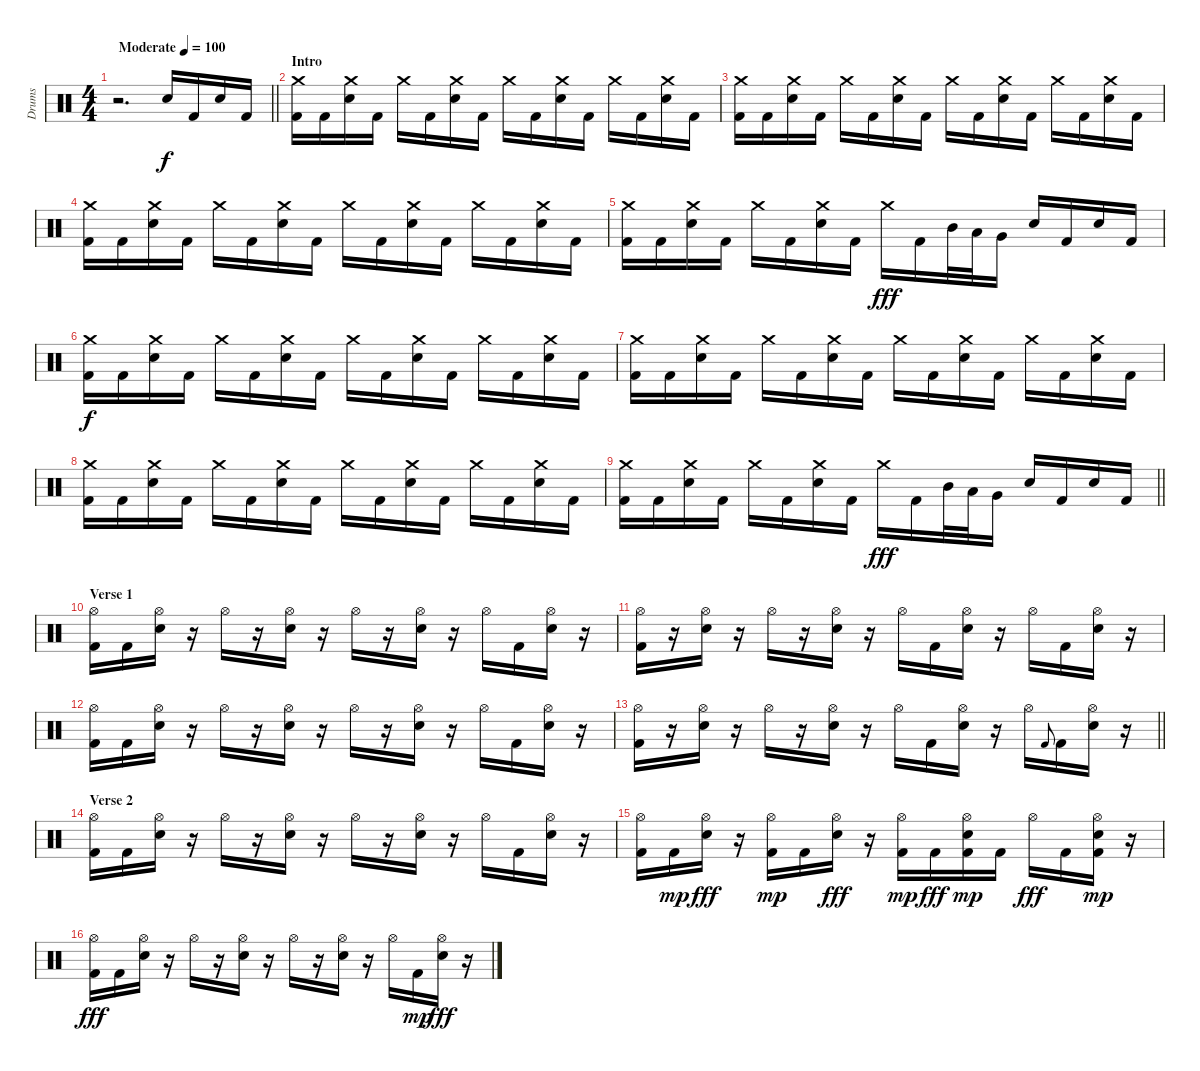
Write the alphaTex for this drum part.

\track ("Drums" "Drums") {instrument percussion}
\staff {score}
\articulation defaults
\ts (4 4)
\tempo (100 "Moderate")
\clef neutral
\barLineRight lightlight
\ks c
r.2{d dy f} "Electric Snare (hit)".16 "Kick (hit) 2".16 "Electric Snare (hit)".16 "Kick (hit) 2".16 |
\section ("" "Intro")
("Crash medium (hit)" "Kick (hit) 2").16 "Kick (hit) 2".16 ("Crash medium (hit)" "Electric Snare (hit)").16 "Kick (hit) 2".16 "Crash medium (hit)".16 "Kick (hit) 2".16 ("Crash medium (hit)" "Electric Snare (hit)").16 "Kick (hit) 2".16 "Crash medium (hit)".16 "Kick (hit) 2".16 ("Crash medium (hit)" "Electric Snare (hit)").16 "Kick (hit) 2".16 "Crash medium (hit)".16 "Kick (hit) 2".16 ("Crash medium (hit)" "Electric Snare (hit)").16 "Kick (hit) 2".16 |
("Crash medium (hit)" "Kick (hit) 2").16 "Kick (hit) 2".16 ("Crash medium (hit)" "Electric Snare (hit)").16 "Kick (hit) 2".16 "Crash medium (hit)".16 "Kick (hit) 2".16 ("Crash medium (hit)" "Electric Snare (hit)").16 "Kick (hit) 2".16 "Crash medium (hit)".16 "Kick (hit) 2".16 ("Crash medium (hit)" "Electric Snare (hit)").16 "Kick (hit) 2".16 "Crash medium (hit)".16 "Kick (hit) 2".16 ("Crash medium (hit)" "Electric Snare (hit)").16 "Kick (hit) 2".16 |
("Crash medium (hit)" "Kick (hit) 2").16 "Kick (hit) 2".16 ("Crash medium (hit)" "Electric Snare (hit)").16 "Kick (hit) 2".16 "Crash medium (hit)".16 "Kick (hit) 2".16 ("Crash medium (hit)" "Electric Snare (hit)").16 "Kick (hit) 2".16 "Crash medium (hit)".16 "Kick (hit) 2".16 ("Crash medium (hit)" "Electric Snare (hit)").16 "Kick (hit) 2".16 "Crash medium (hit)".16 "Kick (hit) 2".16 ("Crash medium (hit)" "Electric Snare (hit)").16 "Kick (hit) 2".16 |
("Crash medium (hit)" "Kick (hit) 2").16 "Kick (hit) 2".16 ("Crash medium (hit)" "Electric Snare (hit)").16 "Kick (hit) 2".16 "Crash medium (hit)".16 "Kick (hit) 2".16 ("Crash medium (hit)" "Electric Snare (hit)").16 "Kick (hit) 2".16 "Crash medium (hit)".16{dy fff} "Kick (hit) 2".16 "Mid Tom (hit)".32 "Low Tom (hit)".32 "Very Low Tom (hit)".16 "Electric Snare (hit)".16 "Kick (hit) 2".16 "Electric Snare (hit)".16 "Kick (hit) 2".16 |
("Crash medium (hit)" "Kick (hit) 2").16{dy f} "Kick (hit) 2".16 ("Crash medium (hit)" "Electric Snare (hit)").16 "Kick (hit) 2".16 "Crash medium (hit)".16 "Kick (hit) 2".16 ("Crash medium (hit)" "Electric Snare (hit)").16 "Kick (hit) 2".16 "Crash medium (hit)".16 "Kick (hit) 2".16 ("Crash medium (hit)" "Electric Snare (hit)").16 "Kick (hit) 2".16 "Crash medium (hit)".16 "Kick (hit) 2".16 ("Crash medium (hit)" "Electric Snare (hit)").16 "Kick (hit) 2".16 |
("Crash medium (hit)" "Kick (hit) 2").16 "Kick (hit) 2".16 ("Crash medium (hit)" "Electric Snare (hit)").16 "Kick (hit) 2".16 "Crash medium (hit)".16 "Kick (hit) 2".16 ("Crash medium (hit)" "Electric Snare (hit)").16 "Kick (hit) 2".16 "Crash medium (hit)".16 "Kick (hit) 2".16 ("Crash medium (hit)" "Electric Snare (hit)").16 "Kick (hit) 2".16 "Crash medium (hit)".16 "Kick (hit) 2".16 ("Crash medium (hit)" "Electric Snare (hit)").16 "Kick (hit) 2".16 |
("Crash medium (hit)" "Kick (hit) 2").16 "Kick (hit) 2".16 ("Crash medium (hit)" "Electric Snare (hit)").16 "Kick (hit) 2".16 "Crash medium (hit)".16 "Kick (hit) 2".16 ("Crash medium (hit)" "Electric Snare (hit)").16 "Kick (hit) 2".16 "Crash medium (hit)".16 "Kick (hit) 2".16 ("Crash medium (hit)" "Electric Snare (hit)").16 "Kick (hit) 2".16 "Crash medium (hit)".16 "Kick (hit) 2".16 ("Crash medium (hit)" "Electric Snare (hit)").16 "Kick (hit) 2".16 |
\barLineRight lightlight
("Crash medium (hit)" "Kick (hit) 2").16 "Kick (hit) 2".16 ("Crash medium (hit)" "Electric Snare (hit)").16 "Kick (hit) 2".16 "Crash medium (hit)".16 "Kick (hit) 2".16 ("Crash medium (hit)" "Electric Snare (hit)").16 "Kick (hit) 2".16 "Crash medium (hit)".16{dy fff} "Kick (hit) 2".16 "Mid Tom (hit)".32 "Low Tom (hit)".32 "Very Low Tom (hit)".16 "Electric Snare (hit)".16 "Kick (hit) 2".16 "Electric Snare (hit)".16 "Kick (hit) 2".16 |
\section ("" "Verse 1")
("Hi-Hat (open)" "Kick (hit) 2").16 "Kick (hit) 2".16 ("Hi-Hat (open)" "Electric Snare (hit)").16 r.16 "Hi-Hat (open)".16 r.16 ("Hi-Hat (open)" "Electric Snare (hit)").16 r.16 "Hi-Hat (open)".16 r.16 ("Hi-Hat (open)" "Electric Snare (hit)").16 r.16 "Hi-Hat (open)".16 "Kick (hit) 2".16 ("Hi-Hat (open)" "Electric Snare (hit)").16 r.16 |
("Hi-Hat (open)" "Kick (hit) 2").16 r.16 ("Hi-Hat (open)" "Electric Snare (hit)").16 r.16 "Hi-Hat (open)".16 r.16 ("Hi-Hat (open)" "Electric Snare (hit)").16 r.16 "Hi-Hat (open)".16 "Kick (hit) 2".16 ("Hi-Hat (open)" "Electric Snare (hit)").16 r.16 "Hi-Hat (open)".16 "Kick (hit) 2".16 ("Hi-Hat (open)" "Electric Snare (hit)").16 r.16 |
("Hi-Hat (open)" "Kick (hit) 2").16 "Kick (hit) 2".16 ("Hi-Hat (open)" "Electric Snare (hit)").16 r.16 "Hi-Hat (open)".16 r.16 ("Hi-Hat (open)" "Electric Snare (hit)").16 r.16 "Hi-Hat (open)".16 r.16 ("Hi-Hat (open)" "Electric Snare (hit)").16 r.16 "Hi-Hat (open)".16 "Kick (hit) 2".16 ("Hi-Hat (open)" "Electric Snare (hit)").16 r.16 |
\barLineRight lightlight
("Hi-Hat (open)" "Kick (hit) 2").16 r.16 ("Hi-Hat (open)" "Electric Snare (hit)").16 r.16 "Hi-Hat (open)".16 r.16 ("Hi-Hat (open)" "Electric Snare (hit)").16 r.16 "Hi-Hat (open)".16 "Kick (hit) 2".16 ("Hi-Hat (open)" "Electric Snare (hit)").16 r.16 "Hi-Hat (open)".16 "Kick (hit) 2".8{gr onbeat} "Kick (hit) 2".16 ("Hi-Hat (open)" "Electric Snare (hit)").16 r.16 |
\section ("" "Verse 2")
("Hi-Hat (open)" "Kick (hit) 2").16 "Kick (hit) 2".16 ("Hi-Hat (open)" "Electric Snare (hit)").16 r.16 "Hi-Hat (open)".16 r.16 ("Hi-Hat (open)" "Electric Snare (hit)").16 r.16 "Hi-Hat (open)".16 r.16 ("Hi-Hat (open)" "Electric Snare (hit)").16 r.16 "Hi-Hat (open)".16 "Kick (hit) 2".16 ("Hi-Hat (open)" "Electric Snare (hit)").16 r.16 |
("Hi-Hat (open)" "Kick (hit) 2").16 "Kick (hit) 2".16{dy mp} ("Hi-Hat (open)" "Electric Snare (hit)").16{dy fff} r.16 ("Hi-Hat (open)" "Kick (hit) 2").16{dy mp} "Kick (hit) 2".16 ("Hi-Hat (open)" "Electric Snare (hit)").16{dy fff} r.16 ("Hi-Hat (open)" "Kick (hit) 2").16{dy mp} "Kick (hit) 2".16{dy fff} ("Hi-Hat (open)" "Electric Snare (hit)" "Kick (hit) 2").16{dy mp} "Kick (hit) 2".16 "Hi-Hat (open)".16{dy fff} "Kick (hit) 2".16 ("Hi-Hat (open)" "Electric Snare (hit)" "Kick (hit) 2").16{dy mp} r.16 |
("Hi-Hat (open)" "Kick (hit) 2").16{dy fff} "Kick (hit) 2".16 ("Hi-Hat (open)" "Electric Snare (hit)").16 r.16 "Hi-Hat (open)".16 r.16 ("Hi-Hat (open)" "Electric Snare (hit)").16 r.16 "Hi-Hat (open)".16 r.16 ("Hi-Hat (open)" "Electric Snare (hit)").16 r.16 "Hi-Hat (open)".16 "Kick (hit) 2".16{dy mp} ("Hi-Hat (open)" "Electric Snare (hit)").16{dy fff} r.16
